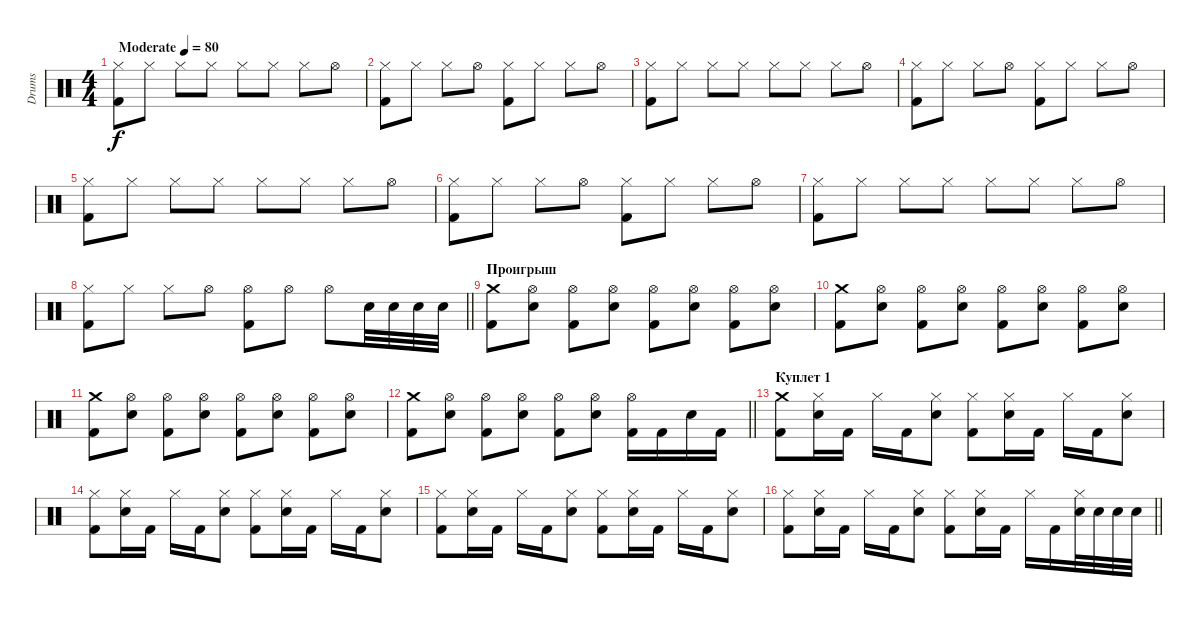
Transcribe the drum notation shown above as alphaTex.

\track ("Drums" "Drums") {instrument percussion}
\staff {score}
\articulation defaults
\ts (4 4)
\tempo (80 "Moderate")
\clef neutral
\ks c
("Hi-Hat (closed)" "Kick (hit) 2").8{dy f} "Hi-Hat (closed)".8 "Hi-Hat (closed)".8 "Hi-Hat (closed)".8 "Hi-Hat (closed)".8 "Hi-Hat (closed)".8 "Hi-Hat (closed)".8 "Hi-Hat (open)".8 |
("Hi-Hat (closed)" "Kick (hit) 2").8 "Hi-Hat (closed)".8 "Hi-Hat (closed)".8 "Hi-Hat (open)".8 ("Hi-Hat (closed)" "Kick (hit) 2").8 "Hi-Hat (closed)".8 "Hi-Hat (closed)".8 "Hi-Hat (open)".8 |
("Hi-Hat (closed)" "Kick (hit) 2").8 "Hi-Hat (closed)".8 "Hi-Hat (closed)".8 "Hi-Hat (closed)".8 "Hi-Hat (closed)".8 "Hi-Hat (closed)".8 "Hi-Hat (closed)".8 "Hi-Hat (open)".8 |
("Hi-Hat (closed)" "Kick (hit) 2").8 "Hi-Hat (closed)".8 "Hi-Hat (closed)".8 "Hi-Hat (open)".8 ("Hi-Hat (closed)" "Kick (hit) 2").8 "Hi-Hat (closed)".8 "Hi-Hat (closed)".8 "Hi-Hat (open)".8 |
("Hi-Hat (closed)" "Kick (hit) 2").8 "Hi-Hat (closed)".8 "Hi-Hat (closed)".8 "Hi-Hat (closed)".8 "Hi-Hat (closed)".8 "Hi-Hat (closed)".8 "Hi-Hat (closed)".8 "Hi-Hat (open)".8 |
("Hi-Hat (closed)" "Kick (hit) 2").8 "Hi-Hat (closed)".8 "Hi-Hat (closed)".8 "Hi-Hat (open)".8 ("Hi-Hat (closed)" "Kick (hit) 2").8 "Hi-Hat (closed)".8 "Hi-Hat (closed)".8 "Hi-Hat (open)".8 |
("Hi-Hat (closed)" "Kick (hit) 2").8 "Hi-Hat (closed)".8 "Hi-Hat (closed)".8 "Hi-Hat (closed)".8 "Hi-Hat (closed)".8 "Hi-Hat (closed)".8 "Hi-Hat (closed)".8 "Hi-Hat (open)".8 |
\barLineRight lightlight
("Hi-Hat (closed)" "Kick (hit) 2").8 "Hi-Hat (closed)".8 "Hi-Hat (closed)".8 "Hi-Hat (open)".8 ("Hi-Hat (open)" "Kick (hit) 2").8 "Hi-Hat (open)".8 "Hi-Hat (open)".8 "Snare (hit) 2".32 "Snare (hit) 2".32 "Snare (hit) 2".32 "Snare (hit) 2".32 |
\section ("" "Проигрыш")
("Crash medium (hit)" "Kick (hit) 2").8 ("Hi-Hat (open)" "Snare (hit) 2").8 ("Hi-Hat (open)" "Kick (hit) 2").8 ("Hi-Hat (open)" "Snare (hit) 2").8 ("Hi-Hat (open)" "Kick (hit) 2").8 ("Hi-Hat (open)" "Snare (hit) 2").8 ("Hi-Hat (open)" "Kick (hit) 2").8 ("Hi-Hat (open)" "Snare (hit) 2").8 |
("Crash medium (hit)" "Kick (hit) 2").8 ("Hi-Hat (open)" "Snare (hit) 2").8 ("Hi-Hat (open)" "Kick (hit) 2").8 ("Hi-Hat (open)" "Snare (hit) 2").8 ("Hi-Hat (open)" "Kick (hit) 2").8 ("Hi-Hat (open)" "Snare (hit) 2").8 ("Hi-Hat (open)" "Kick (hit) 2").8 ("Hi-Hat (open)" "Snare (hit) 2").8 |
("Crash medium (hit)" "Kick (hit) 2").8 ("Hi-Hat (open)" "Snare (hit) 2").8 ("Hi-Hat (open)" "Kick (hit) 2").8 ("Hi-Hat (open)" "Snare (hit) 2").8 ("Hi-Hat (open)" "Kick (hit) 2").8 ("Hi-Hat (open)" "Snare (hit) 2").8 ("Hi-Hat (open)" "Kick (hit) 2").8 ("Hi-Hat (open)" "Snare (hit) 2").8 |
\barLineRight lightlight
("Crash medium (hit)" "Kick (hit) 2").8 ("Hi-Hat (open)" "Snare (hit) 2").8 ("Hi-Hat (open)" "Kick (hit) 2").8 ("Hi-Hat (open)" "Snare (hit) 2").8 ("Hi-Hat (open)" "Kick (hit) 2").8 ("Hi-Hat (open)" "Snare (hit) 2").8 ("Hi-Hat (open)" "Kick (hit) 2").16 "Kick (hit) 2".16 "Snare (hit) 2".16 "Kick (hit) 2".16 |
\section ("" "Куплет 1")
("Crash medium (hit)" "Kick (hit) 2").8 ("Hi-Hat (closed)" "Snare (hit) 2").16 "Kick (hit) 2".16 "Hi-Hat (closed)".16 "Kick (hit) 2".16 ("Hi-Hat (closed)" "Snare (hit) 2").8 ("Hi-Hat (closed)" "Kick (hit) 2").8 ("Hi-Hat (closed)" "Snare (hit) 2").16 "Kick (hit) 2".16 "Hi-Hat (closed)".16 "Kick (hit) 2".16 ("Hi-Hat (closed)" "Snare (hit) 2").8 |
("Hi-Hat (closed)" "Kick (hit) 2").8 ("Hi-Hat (closed)" "Snare (hit) 2").16 "Kick (hit) 2".16 "Hi-Hat (closed)".16 "Kick (hit) 2".16 ("Hi-Hat (closed)" "Snare (hit) 2").8 ("Hi-Hat (closed)" "Kick (hit) 2").8 ("Hi-Hat (closed)" "Snare (hit) 2").16 "Kick (hit) 2".16 "Hi-Hat (closed)".16 "Kick (hit) 2".16 ("Hi-Hat (closed)" "Snare (hit) 2").8 |
("Hi-Hat (closed)" "Kick (hit) 2").8 ("Hi-Hat (closed)" "Snare (hit) 2").16 "Kick (hit) 2".16 "Hi-Hat (closed)".16 "Kick (hit) 2".16 ("Hi-Hat (closed)" "Snare (hit) 2").8 ("Hi-Hat (closed)" "Kick (hit) 2").8 ("Hi-Hat (closed)" "Snare (hit) 2").16 "Kick (hit) 2".16 "Hi-Hat (closed)".16 "Kick (hit) 2".16 ("Hi-Hat (closed)" "Snare (hit) 2").8 |
\barLineRight lightlight
("Hi-Hat (closed)" "Kick (hit) 2").8 ("Hi-Hat (closed)" "Snare (hit) 2").16 "Kick (hit) 2".16 "Hi-Hat (closed)".16 "Kick (hit) 2".16 ("Hi-Hat (closed)" "Snare (hit) 2").8 ("Hi-Hat (closed)" "Kick (hit) 2").8 ("Hi-Hat (closed)" "Snare (hit) 2").16 "Kick (hit) 2".16 "Hi-Hat (closed)".16 "Kick (hit) 2".16 ("Hi-Hat (closed)" "Snare (hit) 2").32 "Snare (hit) 2".32 "Snare (hit) 2".32 "Snare (hit) 2".32
